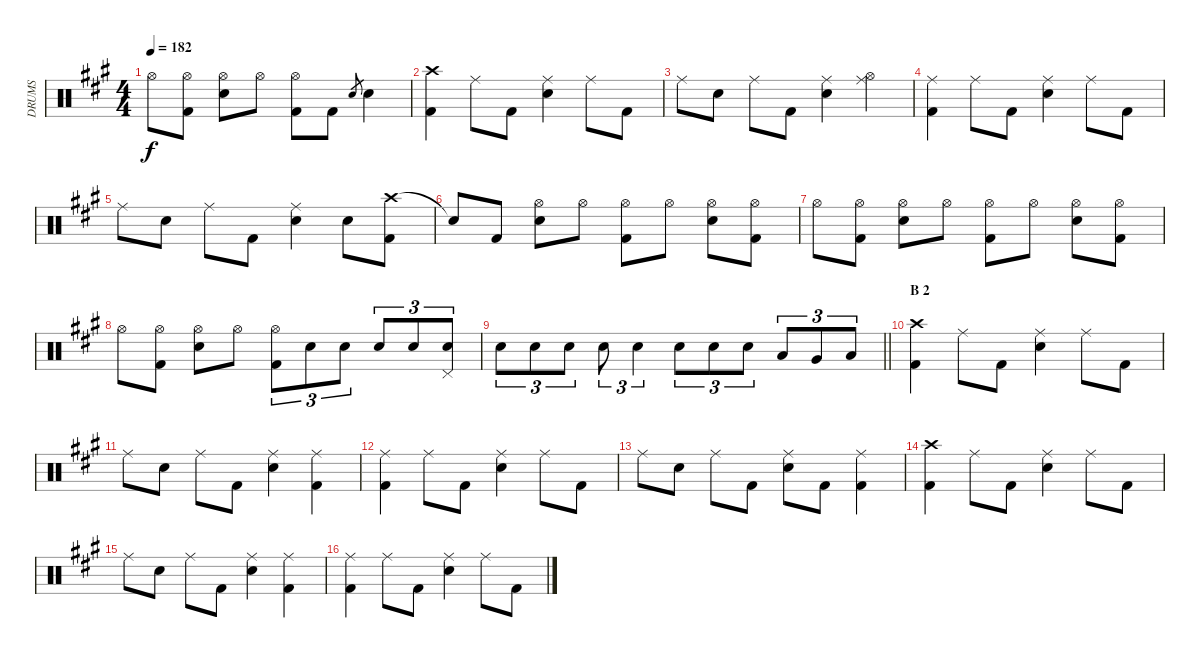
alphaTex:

\track ("DRUMS" "DRUMS") {instrument percussion}
\staff {score}
\articulation defaults
\ts (4 4)
\tempo 182
\clef neutral
\ks a "Hi-Hat (open)".8{dy f}
("Hi-Hat (open)" "Kick (hit) 2").8 ("Hi-Hat (open)" "Snare (hit) 2").8 "Hi-Hat (open)".8 ("Hi-Hat (open)" "Kick (hit) 2").8 "Kick (hit) 2".8 "Snare (hit) 2".8{gr} "Snare (hit) 2".4 |
("Crash high (hit)" "Kick (hit) 2").4 "Ride (middle)".8 "Kick (hit) 2".8 ("Ride (middle)" "Snare (hit) 2").4 "Ride (middle)".8 "Kick (hit) 2".8 |
"Ride (middle)".8 "Snare (hit) 2".8 "Ride (middle)".8 "Kick (hit) 2".8 ("Ride (middle)" "Snare (hit) 2").4 ("Ride (middle)" "Hi-Hat (open)").4 |
("Ride (middle)" "Kick (hit) 2").4 "Ride (middle)".8 "Kick (hit) 2".8 ("Ride (middle)" "Snare (hit) 2").4 "Ride (middle)".8 "Kick (hit) 2".8 |
"Ride (middle)".8 "Snare (hit) 2".8 "Ride (middle)".8 "Kick (hit) 2".8 ("Ride (middle)" "Snare (hit) 2").4 "Snare (hit) 2".8 ("Crash high (hit)" "Kick (hit) 2").8 |
"Snare (hit)"{t}.8 "Kick (hit) 2".8 ("Hi-Hat (open)" "Snare (hit) 2").8 "Hi-Hat (open)".8 ("Hi-Hat (open)" "Kick (hit) 2").8 "Hi-Hat (open)".8 ("Hi-Hat (open)" "Snare (hit) 2").8 ("Hi-Hat (open)" "Kick (hit) 2").8 |
"Hi-Hat (open)".8 ("Hi-Hat (open)" "Kick (hit) 2").8 ("Hi-Hat (open)" "Snare (hit) 2").8 "Hi-Hat (open)".8 ("Hi-Hat (open)" "Kick (hit) 2").8 "Hi-Hat (open)".8 ("Hi-Hat (open)" "Snare (hit) 2").8 ("Hi-Hat (open)" "Kick (hit) 2").8 |
"Hi-Hat (open)".8 ("Hi-Hat (open)" "Kick (hit) 2").8 ("Hi-Hat (open)" "Snare (hit) 2").8 "Hi-Hat (open)".8 ("Hi-Hat (open)" "Kick (hit) 2").8{tu (3 2)} "Snare (hit) 2".8{tu (3 2)} "Snare (hit) 2".8{tu (3 2)} "Snare (hit) 2".8{tu (3 2)} "Snare (hit) 2".8{tu (3 2)} ("Pedal Hi-Hat (hit)" "Snare (hit) 2").8{tu (3 2)} |
\barLineRight lightlight "Snare (hit) 2".8{tu (3 2)} "Snare (hit) 2".8{tu (3 2)} "Snare (hit) 2".8{tu (3 2)} "Snare (hit) 2".8{tu (3 2)} "Snare (hit) 2".4{tu (3 2)} "Snare (hit) 2".8{tu (3 2)} "Snare (hit) 2".8{tu (3 2)} "Snare (hit) 2".8{tu (3 2)} "Low Tom (hit)".8{tu (3 2)} "Very Low Tom (hit)".8{tu (3 2)} "Low Floor Tom (hit)".8{tu (3 2)}
|
\section ("" "B 2")
("Crash high (hit)" "Kick (hit) 2").4 "Ride (middle)".8 "Kick (hit) 2".8 ("Ride (middle)" "Snare (hit) 2").4 "Ride (middle)".8 "Kick (hit) 2".8 |
"Ride (middle)".8 "Snare (hit) 2".8 "Ride (middle)".8 "Kick (hit) 2".8 ("Ride (middle)" "Snare (hit) 2").4 ("Ride (middle)" "Kick (hit) 2").4 |
("Ride (middle)" "Kick (hit) 2").4 "Ride (middle)".8 "Kick (hit) 2".8 ("Ride (middle)" "Snare (hit) 2").4 "Ride (middle)".8 "Kick (hit) 2".8 |
"Ride (middle)".8 "Snare (hit) 2".8 "Ride (middle)".8 "Kick (hit) 2".8 ("Ride (middle)" "Snare (hit) 2").8 "Kick (hit) 2".8 ("Ride (middle)" "Kick (hit) 2").4 |
("Crash high (hit)" "Kick (hit) 2").4 "Ride (middle)".8 "Kick (hit) 2".8 ("Ride (middle)" "Snare (hit) 2").4 "Ride (middle)".8 "Kick (hit) 2".8 |
"Ride (middle)".8 "Snare (hit) 2".8 "Ride (middle)".8 "Kick (hit) 2".8 ("Ride (middle)" "Snare (hit) 2").4 ("Ride (middle)" "Kick (hit) 2").4 |
("Ride (middle)" "Kick (hit) 2").4 "Ride (middle)".8 "Kick (hit) 2".8 ("Ride (middle)" "Snare (hit) 2").4 "Ride (middle)".8 "Kick (hit) 2".8
